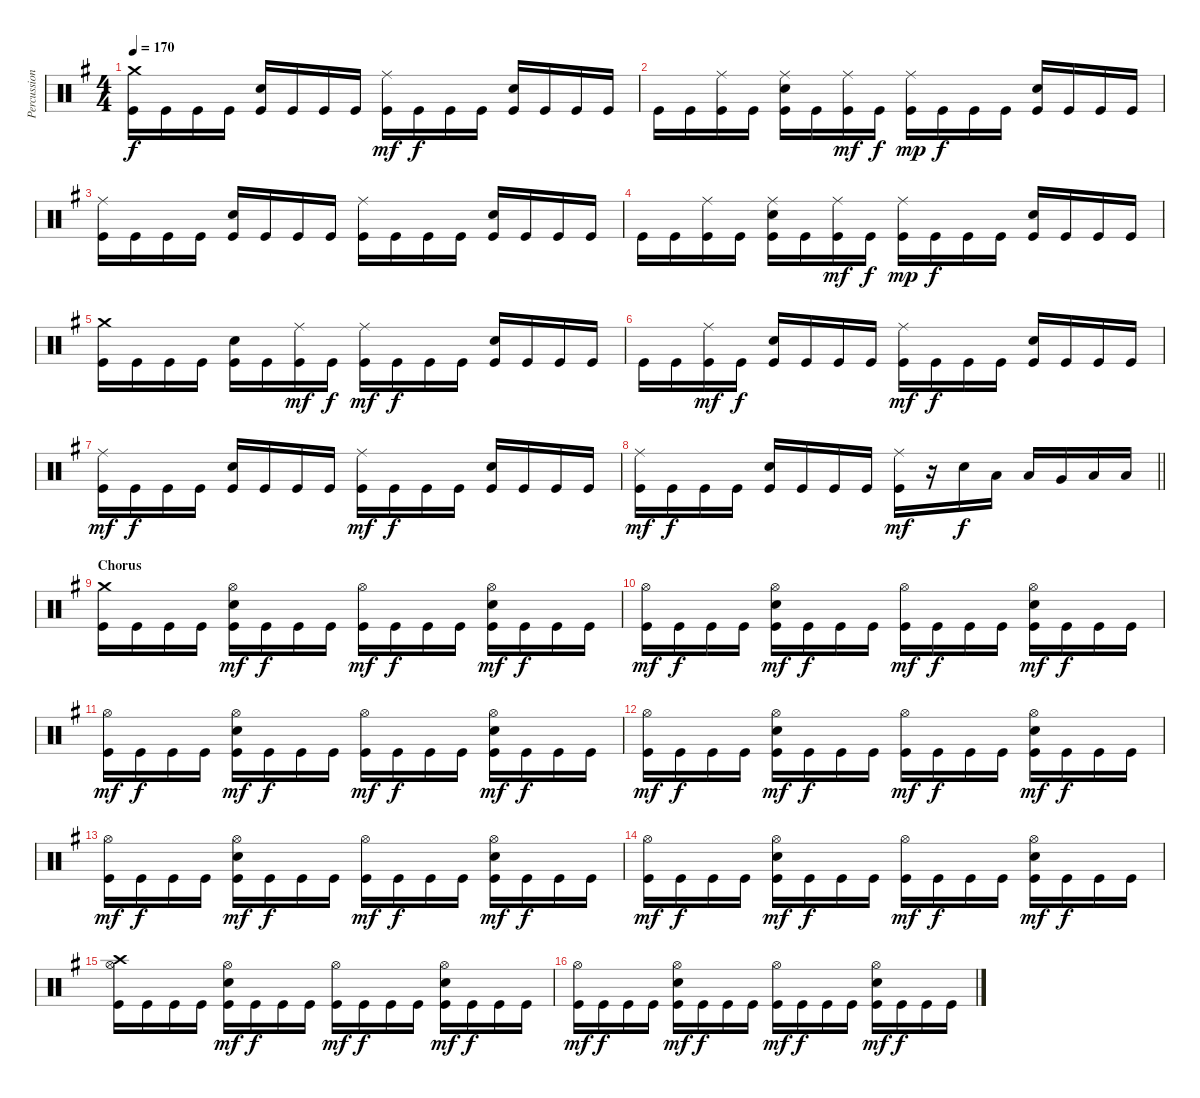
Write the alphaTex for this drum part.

\track ("Percussion" "Percussion") {instrument percussion}
\staff {score}
\articulation defaults
\ts (4 4)
\tempo 170
\clef neutral
\ks g
("Crash medium (hit)" "Kick (hit)").16{dy f} "Kick (hit)".16 "Kick (hit)".16 "Kick (hit)".16 ("Snare (hit) 2" "Kick (hit)").16 "Kick (hit)".16 "Kick (hit)".16 "Kick (hit)".16 ("Ride (middle)" "Kick (hit)").16{dy mf} "Kick (hit)".16{dy f} "Kick (hit)".16 "Kick (hit)".16 ("Snare (hit) 2" "Kick (hit)").16 "Kick (hit)".16 "Kick (hit)".16 "Kick (hit)".16 |
"Kick (hit)".16 "Kick (hit)".16 ("Ride (middle)" "Kick (hit)").16 "Kick (hit)".16 ("Ride (middle)" "Snare (hit) 2" "Kick (hit)").16 "Kick (hit)".16 ("Ride (middle)" "Kick (hit)").16{dy mf} "Kick (hit)".16{dy f} ("Ride (middle)" "Kick (hit)").16{dy mp} "Kick (hit)".16{dy f} "Kick (hit)".16 "Kick (hit)".16 ("Snare (hit) 2" "Kick (hit)").16 "Kick (hit)".16 "Kick (hit)".16 "Kick (hit)".16 |
("Ride (middle)" "Kick (hit)").16 "Kick (hit)".16 "Kick (hit)".16 "Kick (hit)".16 ("Snare (hit) 2" "Kick (hit)").16 "Kick (hit)".16 "Kick (hit)".16 "Kick (hit)".16 ("Ride (middle)" "Kick (hit)").16 "Kick (hit)".16 "Kick (hit)".16 "Kick (hit)".16 ("Snare (hit) 2" "Kick (hit)").16 "Kick (hit)".16 "Kick (hit)".16 "Kick (hit)".16 |
"Kick (hit)".16 "Kick (hit)".16 ("Ride (middle)" "Kick (hit)").16 "Kick (hit)".16 ("Ride (middle)" "Snare (hit) 2" "Kick (hit)").16 "Kick (hit)".16 ("Ride (middle)" "Kick (hit)").16{dy mf} "Kick (hit)".16{dy f} ("Ride (middle)" "Kick (hit)").16{dy mp} "Kick (hit)".16{dy f} "Kick (hit)".16 "Kick (hit)".16 ("Snare (hit) 2" "Kick (hit)").16 "Kick (hit)".16 "Kick (hit)".16 "Kick (hit)".16 |
("Crash medium (hit)" "Kick (hit)").16 "Kick (hit)".16 "Kick (hit)".16 "Kick (hit)".16 ("Snare (hit) 2" "Kick (hit)").16 "Kick (hit)".16 ("Ride (middle)" "Kick (hit)").16{dy mf} "Kick (hit)".16{dy f} ("Ride (middle)" "Kick (hit)").16{dy mf} "Kick (hit)".16{dy f} "Kick (hit)".16 "Kick (hit)".16 ("Snare (hit) 2" "Kick (hit)").16 "Kick (hit)".16 "Kick (hit)".16 "Kick (hit)".16 |
"Kick (hit)".16 "Kick (hit)".16 ("Ride (middle)" "Kick (hit)").16{dy mf} "Kick (hit)".16{dy f} ("Snare (hit) 2" "Kick (hit)").16 "Kick (hit)".16 "Kick (hit)".16 "Kick (hit)".16 ("Ride (middle)" "Kick (hit)").16{dy mf} "Kick (hit)".16{dy f} "Kick (hit)".16 "Kick (hit)".16 ("Snare (hit) 2" "Kick (hit)").16 "Kick (hit)".16 "Kick (hit)".16 "Kick (hit)".16 |
("Ride (middle)" "Kick (hit)").16{dy mf} "Kick (hit)".16{dy f} "Kick (hit)".16 "Kick (hit)".16 ("Snare (hit) 2" "Kick (hit)").16 "Kick (hit)".16 "Kick (hit)".16 "Kick (hit)".16 ("Ride (middle)" "Kick (hit)").16{dy mf} "Kick (hit)".16{dy f} "Kick (hit)".16 "Kick (hit)".16 ("Snare (hit) 2" "Kick (hit)").16 "Kick (hit)".16 "Kick (hit)".16 "Kick (hit)".16 |
\barLineRight lightlight
("Ride (middle)" "Kick (hit)").16{dy mf} "Kick (hit)".16{dy f} "Kick (hit)".16 "Kick (hit)".16 ("Snare (hit) 2" "Kick (hit)").16 "Kick (hit)".16 "Kick (hit)".16 "Kick (hit)".16 ("Ride (middle)" "Kick (hit)").16{dy mf} r.16 "Snare (hit) 2".16{dy f} "Low Tom (hit)".16 "Low Tom (hit)".16 "Very Low Tom (hit)".16 "Low Floor Tom (hit)".16 "Low Floor Tom (hit)".16 |
\section ("" "Chorus")
("Crash medium (hit)" "Kick (hit)").16 "Kick (hit)".16 "Kick (hit)".16 "Kick (hit)".16 ("Hi-Hat (open)" "Snare (hit) 2" "Kick (hit)").16{dy mf} "Kick (hit)".16{dy f} "Kick (hit)".16 "Kick (hit)".16 ("Hi-Hat (open)" "Kick (hit)").16{dy mf} "Kick (hit)".16{dy f} "Kick (hit)".16 "Kick (hit)".16 ("Hi-Hat (open)" "Snare (hit) 2" "Kick (hit)").16{dy mf} "Kick (hit)".16{dy f} "Kick (hit)".16 "Kick (hit)".16 |
("Hi-Hat (open)" "Kick (hit)").16{dy mf} "Kick (hit)".16{dy f} "Kick (hit)".16 "Kick (hit)".16 ("Hi-Hat (open)" "Snare (hit) 2" "Kick (hit)").16{dy mf} "Kick (hit)".16{dy f} "Kick (hit)".16 "Kick (hit)".16 ("Hi-Hat (open)" "Kick (hit)").16{dy mf} "Kick (hit)".16{dy f} "Kick (hit)".16 "Kick (hit)".16 ("Hi-Hat (open)" "Snare (hit) 2" "Kick (hit)").16{dy mf} "Kick (hit)".16{dy f} "Kick (hit)".16 "Kick (hit)".16 |
("Hi-Hat (open)" "Kick (hit)").16{dy mf} "Kick (hit)".16{dy f} "Kick (hit)".16 "Kick (hit)".16 ("Hi-Hat (open)" "Snare (hit) 2" "Kick (hit)").16{dy mf} "Kick (hit)".16{dy f} "Kick (hit)".16 "Kick (hit)".16 ("Hi-Hat (open)" "Kick (hit)").16{dy mf} "Kick (hit)".16{dy f} "Kick (hit)".16 "Kick (hit)".16 ("Hi-Hat (open)" "Snare (hit) 2" "Kick (hit)").16{dy mf} "Kick (hit)".16{dy f} "Kick (hit)".16 "Kick (hit)".16 |
("Hi-Hat (open)" "Kick (hit)").16{dy mf} "Kick (hit)".16{dy f} "Kick (hit)".16 "Kick (hit)".16 ("Hi-Hat (open)" "Snare (hit) 2" "Kick (hit)").16{dy mf} "Kick (hit)".16{dy f} "Kick (hit)".16 "Kick (hit)".16 ("Hi-Hat (open)" "Kick (hit)").16{dy mf} "Kick (hit)".16{dy f} "Kick (hit)".16 "Kick (hit)".16 ("Hi-Hat (open)" "Snare (hit) 2" "Kick (hit)").16{dy mf} "Kick (hit)".16{dy f} "Kick (hit)".16 "Kick (hit)".16 |
("Hi-Hat (open)" "Kick (hit)").16{dy mf} "Kick (hit)".16{dy f} "Kick (hit)".16 "Kick (hit)".16 ("Hi-Hat (open)" "Snare (hit) 2" "Kick (hit)").16{dy mf} "Kick (hit)".16{dy f} "Kick (hit)".16 "Kick (hit)".16 ("Hi-Hat (open)" "Kick (hit)").16{dy mf} "Kick (hit)".16{dy f} "Kick (hit)".16 "Kick (hit)".16 ("Hi-Hat (open)" "Snare (hit) 2" "Kick (hit)").16{dy mf} "Kick (hit)".16{dy f} "Kick (hit)".16 "Kick (hit)".16 |
("Hi-Hat (open)" "Kick (hit)").16{dy mf} "Kick (hit)".16{dy f} "Kick (hit)".16 "Kick (hit)".16 ("Hi-Hat (open)" "Snare (hit) 2" "Kick (hit)").16{dy mf} "Kick (hit)".16{dy f} "Kick (hit)".16 "Kick (hit)".16 ("Hi-Hat (open)" "Kick (hit)").16{dy mf} "Kick (hit)".16{dy f} "Kick (hit)".16 "Kick (hit)".16 ("Hi-Hat (open)" "Snare (hit) 2" "Kick (hit)").16{dy mf} "Kick (hit)".16{dy f} "Kick (hit)".16 "Kick (hit)".16 |
("Crash high (hit)" "Hi-Hat (open)" "Kick (hit)").16 "Kick (hit)".16 "Kick (hit)".16 "Kick (hit)".16 ("Hi-Hat (open)" "Snare (hit) 2" "Kick (hit)").16{dy mf} "Kick (hit)".16{dy f} "Kick (hit)".16 "Kick (hit)".16 ("Hi-Hat (open)" "Kick (hit)").16{dy mf} "Kick (hit)".16{dy f} "Kick (hit)".16 "Kick (hit)".16 ("Hi-Hat (open)" "Snare (hit) 2" "Kick (hit)").16{dy mf} "Kick (hit)".16{dy f} "Kick (hit)".16 "Kick (hit)".16 |
("Hi-Hat (open)" "Kick (hit)").16{dy mf} "Kick (hit)".16{dy f} "Kick (hit)".16 "Kick (hit)".16 ("Hi-Hat (open)" "Snare (hit) 2" "Kick (hit)").16{dy mf} "Kick (hit)".16{dy f} "Kick (hit)".16 "Kick (hit)".16 ("Hi-Hat (open)" "Kick (hit)").16{dy mf} "Kick (hit)".16{dy f} "Kick (hit)".16 "Kick (hit)".16 ("Hi-Hat (open)" "Snare (hit) 2" "Kick (hit)").16{dy mf} "Kick (hit)".16{dy f} "Kick (hit)".16 "Kick (hit)".16
